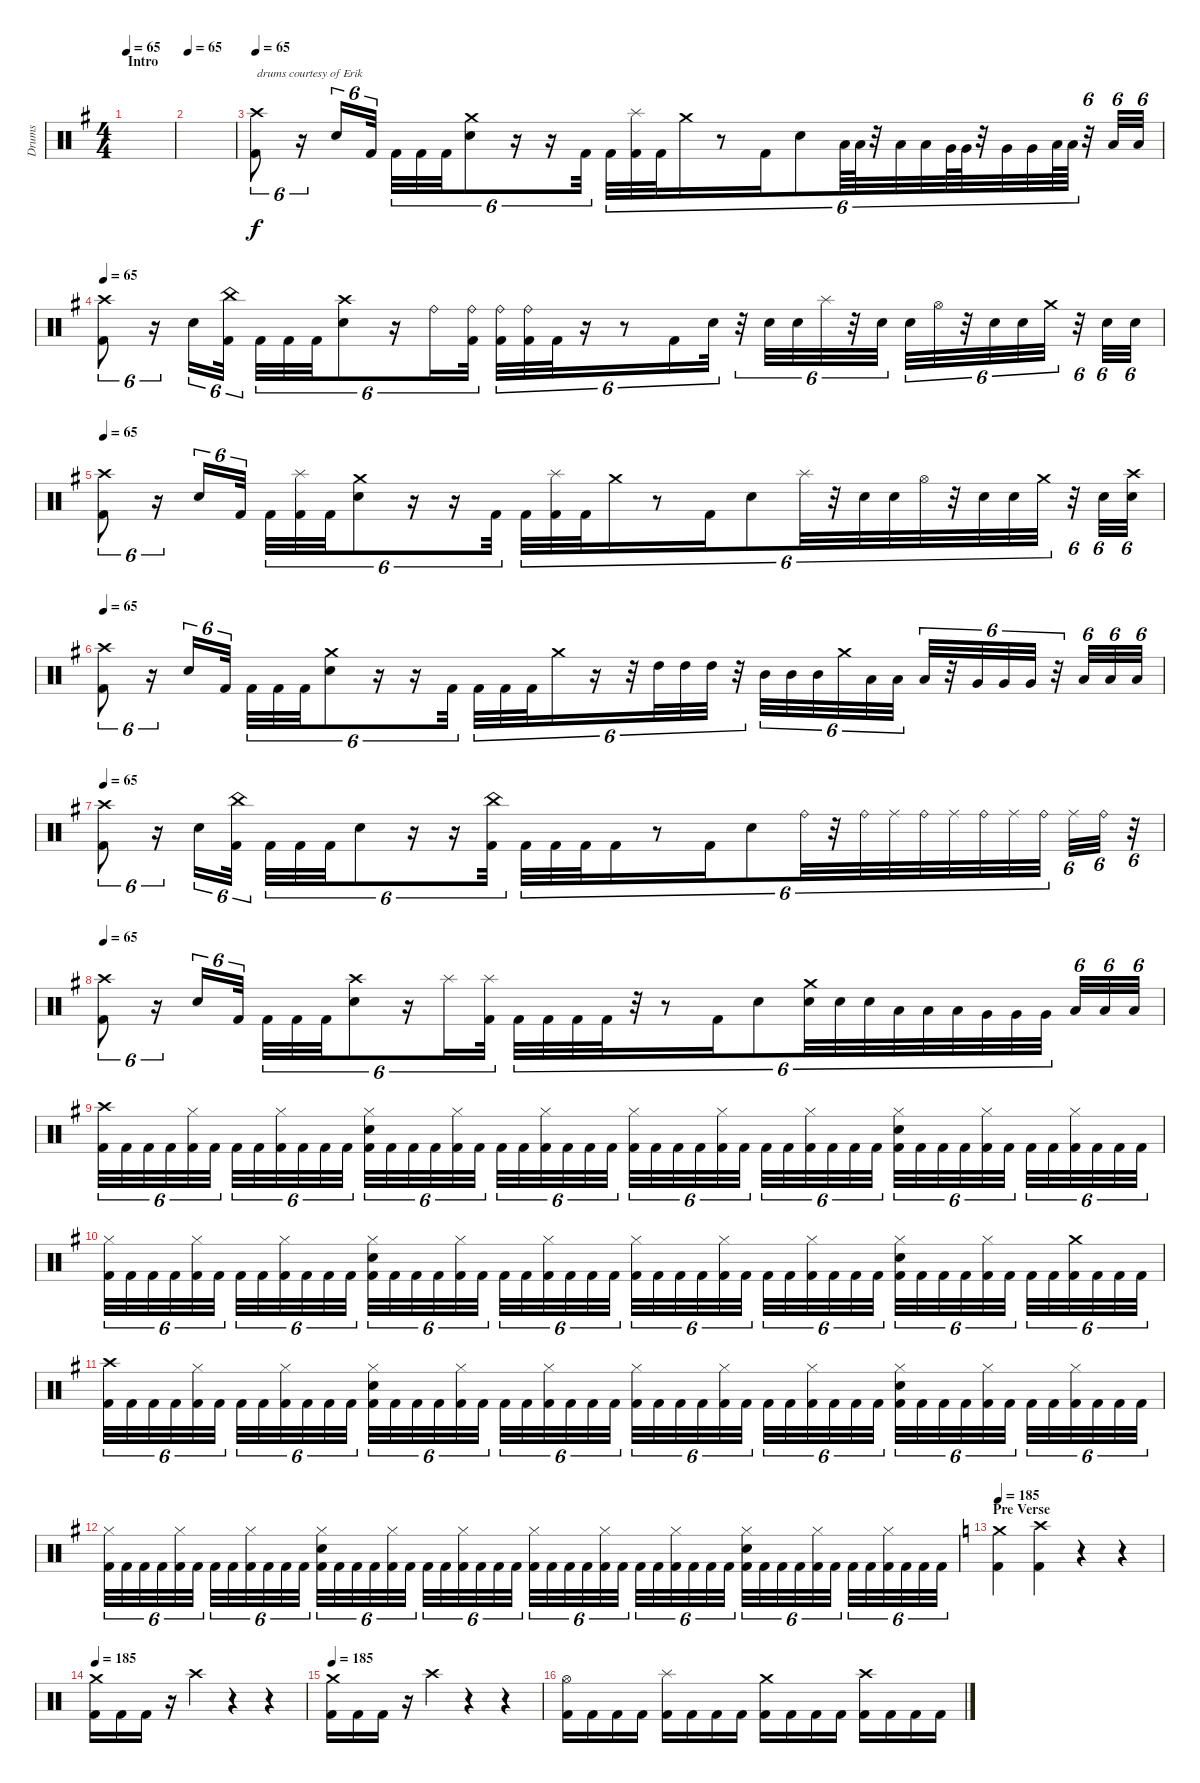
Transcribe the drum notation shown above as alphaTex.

\track ("Drums" "Drums") {instrument percussion}
\staff {score}
\articulation defaults
\ts (4 4)
\section ("" "Intro")
\tempo 65
\clef neutral
\ks g
|
\tempo 65
|
\tempo 65
("Crash high (hit)" "Kick (hit) 2").8{tu (6 4) txt "drums courtesy of Erik"} r.16{tu (6 4)} "Electric Snare (hit)".16{tu (6 4)} "Kick (hit) 2".32{tu (6 4)} "Kick (hit) 2".32{tu (6 4)} "Kick (hit) 2".32{tu (6 4)} "Kick (hit) 2".32{tu (6 4)} ("Crash medium (hit)" "Electric Snare (hit)").8{tu (6 4)} r.16{tu (6 4)} r.16{tu (6 4)} "Kick (hit) 2".32{tu (6 4)} "Kick (hit) 2".32{tu (6 4)} ("Splash (hit)" "Kick (hit) 2").32{tu (6 4)} "Kick (hit) 2".32{tu (6 4)} "Crash medium (hit)".16{tu (6 4)} r.8{tu (6 4)} "Kick (hit) 2".16{tu (6 4)} "Electric Snare (hit)".8{tu (6 4)} "Low Tom (hit)".64{tu (6 4)} "Low Tom (hit)".64{tu (6 4)} r.32{tu (6 4)} "Low Tom (hit)".32{tu (6 4)} "Low Tom (hit)".32{tu (6 4)} "Very Low Tom (hit)".64{tu (6 4)} "Very Low Tom (hit)".64{tu (6 4)} r.32{tu (6 4)} "Very Low Tom (hit)".32{tu (6 4)} "Very Low Tom (hit)".32{tu (6 4)} "Low Floor Tom (hit)".64{tu (6 4)} "Low Floor Tom (hit)".64{tu (6 4)} r.32{tu (6 4)} "Low Floor Tom (hit)".32{tu (6 4)} "Low Floor Tom (hit)".32{tu (6 4)} |
\tempo 65
("Crash high (hit)" "Kick (hit) 2").8{tu (6 4)} r.16{tu (6 4)} "Electric Snare (hit)".16{tu (6 4)} ("China (hit)" "Kick (hit) 2").32{tu (6 4)} "Kick (hit) 2".32{tu (6 4)} "Kick (hit) 2".32{tu (6 4)} "Kick (hit) 2".32{tu (6 4)} ("Crash high (hit)" "Electric Snare (hit)").8{tu (6 4)} r.16{tu (6 4)} "Ride (bell)".16{tu (6 4)} ("Ride (bell)" "Kick (hit) 2").32{tu (6 4)} ("Ride (bell)" "Kick (hit) 2").32{tu (6 4)} ("Ride (bell)" "Kick (hit) 2").32{tu (6 4)} "Kick (hit) 2".32{tu (6 4)} r.16{tu (6 4)} r.8{tu (6 4)} "Kick (hit) 2".16{tu (6 4)} "Electric Snare (hit)".32{tu (6 4)} r.32{tu (6 4)} "Electric Snare (hit)".32{tu (6 4)} "Electric Snare (hit)".32{tu (6 4)} "Splash (hit)".32{tu (6 4)} r.32{tu (6 4)} "Snare (hit) 2".32{tu (6 4)} "Snare (hit) 2".32{tu (6 4)} "Hi-Hat (open)".32{tu (6 4)} r.32{tu (6 4)} "Snare (hit) 2".32{tu (6 4)} "Snare (hit) 2".32{tu (6 4)} "Crash medium (hit)".32{tu (6 4)} r.32{tu (6 4)} "Snare (hit) 2".32{tu (6 4)} "Snare (hit) 2".32{tu (6 4)} |
\tempo 65
("Crash high (hit)" "Kick (hit) 2").8{tu (6 4)} r.16{tu (6 4)} "Electric Snare (hit)".16{tu (6 4)} "Kick (hit) 2".32{tu (6 4)} "Kick (hit) 2".32{tu (6 4)} ("Splash (hit)" "Kick (hit) 2").32{tu (6 4)} "Kick (hit) 2".32{tu (6 4)} ("Crash medium (hit)" "Electric Snare (hit)").8{tu (6 4)} r.16{tu (6 4)} r.16{tu (6 4)} "Kick (hit) 2".32{tu (6 4)} "Kick (hit) 2".32{tu (6 4)} ("Splash (hit)" "Kick (hit) 2").32{tu (6 4)} "Kick (hit) 2".32{tu (6 4)} "Crash medium (hit)".16{tu (6 4)} r.8{tu (6 4)} "Kick (hit) 2".16{tu (6 4)} "Electric Snare (hit)".8{tu (6 4)} "Splash (hit)".32{tu (6 4)} r.32{tu (6 4)} "Snare (hit) 2".32{tu (6 4)} "Snare (hit) 2".32{tu (6 4)} "Hi-Hat (open)".32{tu (6 4)} r.32{tu (6 4)} "Snare (hit) 2".32{tu (6 4)} "Snare (hit) 2".32{tu (6 4)} "Crash medium (hit)".32{tu (6 4)} r.32{tu (6 4)} "Snare (hit) 2".32{tu (6 4)} ("Crash high (hit)" "Snare (hit) 2").32{tu (6 4)} |
\tempo 65
("Crash high (hit)" "Kick (hit) 2").8{tu (6 4)} r.16{tu (6 4)} "Electric Snare (hit)".16{tu (6 4)} "Kick (hit) 2".32{tu (6 4)} "Kick (hit) 2".32{tu (6 4)} "Kick (hit) 2".32{tu (6 4)} "Kick (hit) 2".32{tu (6 4)} ("Crash medium (hit)" "Electric Snare (hit)").8{tu (6 4)} r.16{tu (6 4)} r.16{tu (6 4)} "Kick (hit) 2".32{tu (6 4)} "Kick (hit) 2".32{tu (6 4)} "Kick (hit) 2".32{tu (6 4)} "Kick (hit) 2".32{tu (6 4)} "Crash medium (hit)".16{tu (6 4)} r.16{tu (6 4)} r.32{tu (6 4)} "High Tom (hit)".32{tu (6 4)} "High Tom (hit)".32{tu (6 4)} "High Tom (hit)".32{tu (6 4)} r.32{tu (6 4)} "Mid Tom (hit)".32{tu (6 4)} "Mid Tom (hit)".32{tu (6 4)} "Mid Tom (hit)".32{tu (6 4)} "Crash medium (hit)".32{tu (6 4)} "Low Tom (hit)".32{tu (6 4)} "Low Tom (hit)".32{tu (6 4)} "Low Tom (hit)".32{tu (6 4)} r.32{tu (6 4)} "Very Low Tom (hit)".32{tu (6 4)} "Very Low Tom (hit)".32{tu (6 4)} "Very Low Tom (hit)".32{tu (6 4)} r.32{tu (6 4)} "Low Floor Tom (hit)".32{tu (6 4)} "Low Floor Tom (hit)".32{tu (6 4)} "Low Floor Tom (hit)".32{tu (6 4)} |
\tempo 65
("Crash high (hit)" "Kick (hit) 2").8{tu (6 4)} r.16{tu (6 4)} "Electric Snare (hit)".16{tu (6 4)} ("China (hit)" "Kick (hit) 2").32{tu (6 4)} "Kick (hit) 2".32{tu (6 4)} "Kick (hit) 2".32{tu (6 4)} "Kick (hit) 2".32{tu (6 4)} "Electric Snare (hit)".8{tu (6 4)} r.16{tu (6 4)} r.16{tu (6 4)} ("China (hit)" "Kick (hit) 2").32{tu (6 4)} "Kick (hit) 2".32{tu (6 4)} "Kick (hit) 2".32{tu (6 4)} "Kick (hit) 2".32{tu (6 4)} "Kick (hit) 2".16{tu (6 4)} r.8{tu (6 4)} "Kick (hit) 2".16{tu (6 4)} "Electric Snare (hit)".8{tu (6 4)} "Ride (bell)".32{tu (6 4)} r.32{tu (6 4)} "Ride (bell)".32{tu (6 4)} "Ride (middle)".32{tu (6 4)} "Ride (bell)".32{tu (6 4)} "Ride (middle)".32{tu (6 4)} "Ride (bell)".32{tu (6 4)} "Ride (middle)".32{tu (6 4)} "Ride (bell)".32{tu (6 4)} "Ride (middle)".32{tu (6 4)} "Ride (bell)".32{tu (6 4)} r.32{tu (6 4)} |
\tempo 65
("Crash high (hit)" "Kick (hit) 2").8{tu (6 4)} r.16{tu (6 4)} "Electric Snare (hit)".16{tu (6 4)} "Kick (hit) 2".32{tu (6 4)} "Kick (hit) 2".32{tu (6 4)} "Kick (hit) 2".32{tu (6 4)} "Kick (hit) 2".32{tu (6 4)} ("Crash high (hit)" "Electric Snare (hit)").8{tu (6 4)} r.16{tu (6 4)} "Splash (hit)".16{tu (6 4)} ("Splash (hit)" "Kick (hit) 2").32{tu (6 4)} "Kick (hit) 2".32{tu (6 4)} "Kick (hit) 2".32{tu (6 4)} "Kick (hit) 2".32{tu (6 4)} "Kick (hit) 2".32{tu (6 4)} r.32{tu (6 4)} r.8{tu (6 4)} "Kick (hit) 2".16{tu (6 4)} "Electric Snare (hit)".8{tu (6 4)} ("Crash medium (hit)" "Electric Snare (hit)").32{tu (6 4)} "Electric Snare (hit)".32{tu (6 4)} "Electric Snare (hit)".32{tu (6 4)} "Low Tom (hit)".32{tu (6 4)} "Low Tom (hit)".32{tu (6 4)} "Low Tom (hit)".32{tu (6 4)} "Very Low Tom (hit)".32{tu (6 4)} "Very Low Tom (hit)".32{tu (6 4)} "Very Low Tom (hit)".32{tu (6 4)} "Low Floor Tom (hit)".32{tu (6 4)} "Low Floor Tom (hit)".32{tu (6 4)} "Low Floor Tom (hit)".32{tu (6 4)} |
("Crash high (hit)" "Kick (hit) 2").32{tu (6 4)} "Kick (hit) 2".32{tu (6 4)} "Kick (hit) 2".32{tu (6 4)} "Kick (hit) 2".32{tu (6 4)} ("Hi-Hat (closed)" "Kick (hit) 2").32{tu (6 4)} "Kick (hit) 2".32{tu (6 4)} "Kick (hit) 2".32{tu (6 4)} "Kick (hit) 2".32{tu (6 4)} ("Hi-Hat (closed)" "Kick (hit) 2").32{tu (6 4)} "Kick (hit) 2".32{tu (6 4)} "Kick (hit) 2".32{tu (6 4)} "Kick (hit) 2".32{tu (6 4)} ("Hi-Hat (closed)" "Electric Snare (hit)" "Kick (hit) 2").32{tu (6 4)} "Kick (hit) 2".32{tu (6 4)} "Kick (hit) 2".32{tu (6 4)} "Kick (hit) 2".32{tu (6 4)} ("Hi-Hat (closed)" "Kick (hit) 2").32{tu (6 4)} "Kick (hit) 2".32{tu (6 4)} "Kick (hit) 2".32{tu (6 4)} "Kick (hit) 2".32{tu (6 4)} ("Hi-Hat (closed)" "Kick (hit) 2").32{tu (6 4)} "Kick (hit) 2".32{tu (6 4)} "Kick (hit) 2".32{tu (6 4)} "Kick (hit) 2".32{tu (6 4)} ("Hi-Hat (closed)" "Kick (hit) 2").32{tu (6 4)} "Kick (hit) 2".32{tu (6 4)} "Kick (hit) 2".32{tu (6 4)} "Kick (hit) 2".32{tu (6 4)} ("Hi-Hat (closed)" "Kick (hit) 2").32{tu (6 4)} "Kick (hit) 2".32{tu (6 4)} "Kick (hit) 2".32{tu (6 4)} "Kick (hit) 2".32{tu (6 4)} ("Hi-Hat (closed)" "Kick (hit) 2").32{tu (6 4)} "Kick (hit) 2".32{tu (6 4)} "Kick (hit) 2".32{tu (6 4)} "Kick (hit) 2".32{tu (6 4)} ("Hi-Hat (closed)" "Electric Snare (hit)" "Kick (hit) 2").32{tu (6 4)} "Kick (hit) 2".32{tu (6 4)} "Kick (hit) 2".32{tu (6 4)} "Kick (hit) 2".32{tu (6 4)} ("Hi-Hat (closed)" "Kick (hit) 2").32{tu (6 4)} "Kick (hit) 2".32{tu (6 4)} "Kick (hit) 2".32{tu (6 4)} "Kick (hit) 2".32{tu (6 4)} ("Hi-Hat (closed)" "Kick (hit) 2").32{tu (6 4)} "Kick (hit) 2".32{tu (6 4)} "Kick (hit) 2".32{tu (6 4)} "Kick (hit) 2".32{tu (6 4)} |
("Hi-Hat (closed)" "Kick (hit) 2").32{tu (6 4)} "Kick (hit) 2".32{tu (6 4)} "Kick (hit) 2".32{tu (6 4)} "Kick (hit) 2".32{tu (6 4)} ("Hi-Hat (closed)" "Kick (hit) 2").32{tu (6 4)} "Kick (hit) 2".32{tu (6 4)} "Kick (hit) 2".32{tu (6 4)} "Kick (hit) 2".32{tu (6 4)} ("Hi-Hat (closed)" "Kick (hit) 2").32{tu (6 4)} "Kick (hit) 2".32{tu (6 4)} "Kick (hit) 2".32{tu (6 4)} "Kick (hit) 2".32{tu (6 4)} ("Hi-Hat (closed)" "Electric Snare (hit)" "Kick (hit) 2").32{tu (6 4)} "Kick (hit) 2".32{tu (6 4)} "Kick (hit) 2".32{tu (6 4)} "Kick (hit) 2".32{tu (6 4)} ("Hi-Hat (closed)" "Kick (hit) 2").32{tu (6 4)} "Kick (hit) 2".32{tu (6 4)} "Kick (hit) 2".32{tu (6 4)} "Kick (hit) 2".32{tu (6 4)} ("Hi-Hat (closed)" "Kick (hit) 2").32{tu (6 4)} "Kick (hit) 2".32{tu (6 4)} "Kick (hit) 2".32{tu (6 4)} "Kick (hit) 2".32{tu (6 4)} ("Hi-Hat (closed)" "Kick (hit) 2").32{tu (6 4)} "Kick (hit) 2".32{tu (6 4)} "Kick (hit) 2".32{tu (6 4)} "Kick (hit) 2".32{tu (6 4)} ("Hi-Hat (closed)" "Kick (hit) 2").32{tu (6 4)} "Kick (hit) 2".32{tu (6 4)} "Kick (hit) 2".32{tu (6 4)} "Kick (hit) 2".32{tu (6 4)} ("Hi-Hat (closed)" "Kick (hit) 2").32{tu (6 4)} "Kick (hit) 2".32{tu (6 4)} "Kick (hit) 2".32{tu (6 4)} "Kick (hit) 2".32{tu (6 4)} ("Hi-Hat (closed)" "Electric Snare (hit)" "Kick (hit) 2").32{tu (6 4)} "Kick (hit) 2".32{tu (6 4)} "Kick (hit) 2".32{tu (6 4)} "Kick (hit) 2".32{tu (6 4)} ("Hi-Hat (closed)" "Kick (hit) 2").32{tu (6 4)} "Kick (hit) 2".32{tu (6 4)} "Kick (hit) 2".32{tu (6 4)} "Kick (hit) 2".32{tu (6 4)} ("Crash medium (hit)" "Kick (hit) 2").32{tu (6 4)} "Kick (hit) 2".32{tu (6 4)} "Kick (hit) 2".32{tu (6 4)} "Kick (hit) 2".32{tu (6 4)} |
("Crash high (hit)" "Kick (hit) 2").32{tu (6 4)} "Kick (hit) 2".32{tu (6 4)} "Kick (hit) 2".32{tu (6 4)} "Kick (hit) 2".32{tu (6 4)} ("Hi-Hat (closed)" "Kick (hit) 2").32{tu (6 4)} "Kick (hit) 2".32{tu (6 4)} "Kick (hit) 2".32{tu (6 4)} "Kick (hit) 2".32{tu (6 4)} ("Hi-Hat (closed)" "Kick (hit) 2").32{tu (6 4)} "Kick (hit) 2".32{tu (6 4)} "Kick (hit) 2".32{tu (6 4)} "Kick (hit) 2".32{tu (6 4)} ("Hi-Hat (closed)" "Electric Snare (hit)" "Kick (hit) 2").32{tu (6 4)} "Kick (hit) 2".32{tu (6 4)} "Kick (hit) 2".32{tu (6 4)} "Kick (hit) 2".32{tu (6 4)} ("Hi-Hat (closed)" "Kick (hit) 2").32{tu (6 4)} "Kick (hit) 2".32{tu (6 4)} "Kick (hit) 2".32{tu (6 4)} "Kick (hit) 2".32{tu (6 4)} ("Hi-Hat (closed)" "Kick (hit) 2").32{tu (6 4)} "Kick (hit) 2".32{tu (6 4)} "Kick (hit) 2".32{tu (6 4)} "Kick (hit) 2".32{tu (6 4)} ("Hi-Hat (closed)" "Kick (hit) 2").32{tu (6 4)} "Kick (hit) 2".32{tu (6 4)} "Kick (hit) 2".32{tu (6 4)} "Kick (hit) 2".32{tu (6 4)} ("Hi-Hat (closed)" "Kick (hit) 2").32{tu (6 4)} "Kick (hit) 2".32{tu (6 4)} "Kick (hit) 2".32{tu (6 4)} "Kick (hit) 2".32{tu (6 4)} ("Hi-Hat (closed)" "Kick (hit) 2").32{tu (6 4)} "Kick (hit) 2".32{tu (6 4)} "Kick (hit) 2".32{tu (6 4)} "Kick (hit) 2".32{tu (6 4)} ("Hi-Hat (closed)" "Electric Snare (hit)" "Kick (hit) 2").32{tu (6 4)} "Kick (hit) 2".32{tu (6 4)} "Kick (hit) 2".32{tu (6 4)} "Kick (hit) 2".32{tu (6 4)} ("Hi-Hat (closed)" "Kick (hit) 2").32{tu (6 4)} "Kick (hit) 2".32{tu (6 4)} "Kick (hit) 2".32{tu (6 4)} "Kick (hit) 2".32{tu (6 4)} ("Hi-Hat (closed)" "Kick (hit) 2").32{tu (6 4)} "Kick (hit) 2".32{tu (6 4)} "Kick (hit) 2".32{tu (6 4)} "Kick (hit) 2".32{tu (6 4)} |
("Hi-Hat (closed)" "Kick (hit) 2").32{tu (6 4)} "Kick (hit) 2".32{tu (6 4)} "Kick (hit) 2".32{tu (6 4)} "Kick (hit) 2".32{tu (6 4)} ("Hi-Hat (closed)" "Kick (hit) 2").32{tu (6 4)} "Kick (hit) 2".32{tu (6 4)} "Kick (hit) 2".32{tu (6 4)} "Kick (hit) 2".32{tu (6 4)} ("Hi-Hat (closed)" "Kick (hit) 2").32{tu (6 4)} "Kick (hit) 2".32{tu (6 4)} "Kick (hit) 2".32{tu (6 4)} "Kick (hit) 2".32{tu (6 4)} ("Hi-Hat (closed)" "Electric Snare (hit)" "Kick (hit) 2").32{tu (6 4)} "Kick (hit) 2".32{tu (6 4)} "Kick (hit) 2".32{tu (6 4)} "Kick (hit) 2".32{tu (6 4)} ("Hi-Hat (closed)" "Kick (hit) 2").32{tu (6 4)} "Kick (hit) 2".32{tu (6 4)} "Kick (hit) 2".32{tu (6 4)} "Kick (hit) 2".32{tu (6 4)} ("Hi-Hat (closed)" "Kick (hit) 2").32{tu (6 4)} "Kick (hit) 2".32{tu (6 4)} "Kick (hit) 2".32{tu (6 4)} "Kick (hit) 2".32{tu (6 4)} ("Hi-Hat (closed)" "Kick (hit) 2").32{tu (6 4)} "Kick (hit) 2".32{tu (6 4)} "Kick (hit) 2".32{tu (6 4)} "Kick (hit) 2".32{tu (6 4)} ("Hi-Hat (closed)" "Kick (hit) 2").32{tu (6 4)} "Kick (hit) 2".32{tu (6 4)} "Kick (hit) 2".32{tu (6 4)} "Kick (hit) 2".32{tu (6 4)} ("Hi-Hat (closed)" "Kick (hit) 2").32{tu (6 4)} "Kick (hit) 2".32{tu (6 4)} "Kick (hit) 2".32{tu (6 4)} "Kick (hit) 2".32{tu (6 4)} ("Hi-Hat (closed)" "Electric Snare (hit)" "Kick (hit) 2").32{tu (6 4)} "Kick (hit) 2".32{tu (6 4)} "Kick (hit) 2".32{tu (6 4)} "Kick (hit) 2".32{tu (6 4)} ("Hi-Hat (closed)" "Kick (hit) 2").32{tu (6 4)} "Kick (hit) 2".32{tu (6 4)} "Kick (hit) 2".32{tu (6 4)} "Kick (hit) 2".32{tu (6 4)} ("Hi-Hat (closed)" "Kick (hit) 2").32{tu (6 4)} "Kick (hit) 2".32{tu (6 4)} "Kick (hit) 2".32{tu (6 4)} "Kick (hit) 2".32{tu (6 4)} |
\section ("" "Pre Verse")
\tempo 185
\ks c
("Crash medium (hit)" "Kick (hit) 2").4 ("Crash high (hit)" "Kick (hit) 2").4 r.4 r.4 |
\tempo 185
("Crash medium (hit)" "Kick (hit) 2").16 "Kick (hit) 2".16 "Kick (hit) 2".16 r.16 "Crash high (hit)".4 r.4 r.4 |
\tempo 185
("Crash medium (hit)" "Kick (hit) 2").16 "Kick (hit) 2".16 "Kick (hit) 2".16 r.16 "Crash high (hit)".4 r.4 r.4 |
("Hi-Hat (open)" "Kick (hit) 2").16 "Kick (hit) 2".16 "Kick (hit) 2".16 "Kick (hit) 2".16 ("Splash (hit)" "Kick (hit) 2").16 "Kick (hit) 2".16 "Kick (hit) 2".16 "Kick (hit) 2".16 ("Crash medium (hit)" "Kick (hit) 2").16 "Kick (hit) 2".16 "Kick (hit) 2".16 "Kick (hit) 2".16 ("Crash high (hit)" "Kick (hit) 2").16 "Kick (hit) 2".16 "Kick (hit) 2".16 "Kick (hit) 2".16
